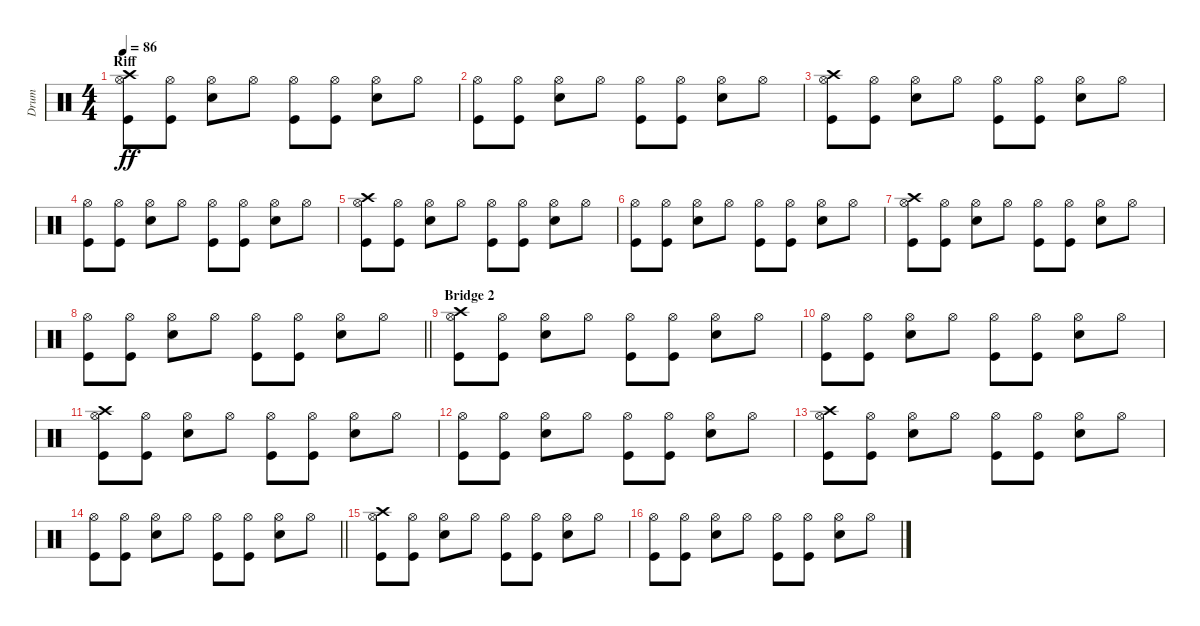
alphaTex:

\track ("Drum" "Drum") {instrument percussion}
\staff {score}
\articulation defaults
\ts (4 4)
\section ("" "Riff")
\tempo 86
\clef neutral
\ks c
("Crash high (hit)" "Kick (hit)" "Hi-Hat (open)").8{dy ff} ("Hi-Hat (open)" "Kick (hit)").8 ("Electric Snare (hit)" "Hi-Hat (open)").8 "Hi-Hat (open)".8 ("Hi-Hat (open)" "Kick (hit)").8 ("Hi-Hat (open)" "Kick (hit)").8 ("Hi-Hat (open)" "Electric Snare (hit)").8 "Hi-Hat (open)".8 |
("Kick (hit)" "Hi-Hat (open)").8 ("Kick (hit)" "Hi-Hat (open)").8 ("Hi-Hat (open)" "Electric Snare (hit)").8 "Hi-Hat (open)".8 ("Hi-Hat (open)" "Kick (hit)").8 ("Hi-Hat (open)" "Kick (hit)").8 ("Electric Snare (hit)" "Hi-Hat (open)").8 "Hi-Hat (open)".8 |
("Kick (hit)" "Hi-Hat (open)" "Crash high (hit)").8 ("Kick (hit)" "Hi-Hat (open)").8 ("Hi-Hat (open)" "Electric Snare (hit)").8 "Hi-Hat (open)".8 ("Hi-Hat (open)" "Kick (hit)").8 ("Hi-Hat (open)" "Kick (hit)").8 ("Hi-Hat (open)" "Electric Snare (hit)").8 "Hi-Hat (open)".8 |
("Hi-Hat (open)" "Kick (hit)").8 ("Hi-Hat (open)" "Kick (hit)").8 ("Hi-Hat (open)" "Electric Snare (hit)").8 "Hi-Hat (open)".8 ("Hi-Hat (open)" "Kick (hit)").8 ("Hi-Hat (open)" "Kick (hit)").8 ("Hi-Hat (open)" "Electric Snare (hit)").8 "Hi-Hat (open)".8 |
("Crash high (hit)" "Kick (hit)" "Hi-Hat (open)").8 ("Hi-Hat (open)" "Kick (hit)").8 ("Electric Snare (hit)" "Hi-Hat (open)").8 "Hi-Hat (open)".8 ("Hi-Hat (open)" "Kick (hit)").8 ("Hi-Hat (open)" "Kick (hit)").8 ("Hi-Hat (open)" "Electric Snare (hit)").8 "Hi-Hat (open)".8 |
("Kick (hit)" "Hi-Hat (open)").8 ("Kick (hit)" "Hi-Hat (open)").8 ("Hi-Hat (open)" "Electric Snare (hit)").8 "Hi-Hat (open)".8 ("Hi-Hat (open)" "Kick (hit)").8 ("Hi-Hat (open)" "Kick (hit)").8 ("Electric Snare (hit)" "Hi-Hat (open)").8 "Hi-Hat (open)".8 |
("Kick (hit)" "Hi-Hat (open)" "Crash high (hit)").8 ("Kick (hit)" "Hi-Hat (open)").8 ("Hi-Hat (open)" "Electric Snare (hit)").8 "Hi-Hat (open)".8 ("Hi-Hat (open)" "Kick (hit)").8 ("Hi-Hat (open)" "Kick (hit)").8 ("Hi-Hat (open)" "Electric Snare (hit)").8 "Hi-Hat (open)".8 |
\barLineRight lightlight
("Hi-Hat (open)" "Kick (hit)").8 ("Hi-Hat (open)" "Kick (hit)").8 ("Hi-Hat (open)" "Electric Snare (hit)").8 "Hi-Hat (open)".8 ("Hi-Hat (open)" "Kick (hit)").8 ("Hi-Hat (open)" "Kick (hit)").8 ("Hi-Hat (open)" "Electric Snare (hit)").8 "Hi-Hat (open)".8 |
\section ("" "Bridge 2")
("Crash high (hit)" "Kick (hit)" "Hi-Hat (open)").8 ("Hi-Hat (open)" "Kick (hit)").8 ("Electric Snare (hit)" "Hi-Hat (open)").8 "Hi-Hat (open)".8 ("Hi-Hat (open)" "Kick (hit)").8 ("Hi-Hat (open)" "Kick (hit)").8 ("Hi-Hat (open)" "Electric Snare (hit)").8 "Hi-Hat (open)".8 |
("Kick (hit)" "Hi-Hat (open)").8 ("Kick (hit)" "Hi-Hat (open)").8 ("Hi-Hat (open)" "Electric Snare (hit)").8 "Hi-Hat (open)".8 ("Hi-Hat (open)" "Kick (hit)").8 ("Hi-Hat (open)" "Kick (hit)").8 ("Electric Snare (hit)" "Hi-Hat (open)").8 "Hi-Hat (open)".8 |
("Kick (hit)" "Hi-Hat (open)" "Crash high (hit)").8 ("Kick (hit)" "Hi-Hat (open)").8 ("Hi-Hat (open)" "Electric Snare (hit)").8 "Hi-Hat (open)".8 ("Hi-Hat (open)" "Kick (hit)").8 ("Hi-Hat (open)" "Kick (hit)").8 ("Hi-Hat (open)" "Electric Snare (hit)").8 "Hi-Hat (open)".8 |
("Hi-Hat (open)" "Kick (hit)").8 ("Hi-Hat (open)" "Kick (hit)").8 ("Hi-Hat (open)" "Electric Snare (hit)").8 "Hi-Hat (open)".8 ("Hi-Hat (open)" "Kick (hit)").8 ("Hi-Hat (open)" "Kick (hit)").8 ("Hi-Hat (open)" "Electric Snare (hit)").8 "Hi-Hat (open)".8 |
("Crash high (hit)" "Kick (hit)" "Hi-Hat (open)").8 ("Hi-Hat (open)" "Kick (hit)").8 ("Electric Snare (hit)" "Hi-Hat (open)").8 "Hi-Hat (open)".8 ("Hi-Hat (open)" "Kick (hit)").8 ("Hi-Hat (open)" "Kick (hit)").8 ("Hi-Hat (open)" "Electric Snare (hit)").8 "Hi-Hat (open)".8 |
\barLineRight lightlight
("Kick (hit)" "Hi-Hat (open)").8 ("Kick (hit)" "Hi-Hat (open)").8 ("Hi-Hat (open)" "Electric Snare (hit)").8 "Hi-Hat (open)".8 ("Hi-Hat (open)" "Kick (hit)").8 ("Hi-Hat (open)" "Kick (hit)").8 ("Electric Snare (hit)" "Hi-Hat (open)").8 "Hi-Hat (open)".8 |
\section ("" "")
("Crash high (hit)" "Kick (hit)" "Hi-Hat (open)").8 ("Hi-Hat (open)" "Kick (hit)").8 ("Electric Snare (hit)" "Hi-Hat (open)").8 "Hi-Hat (open)".8 ("Hi-Hat (open)" "Kick (hit)").8 ("Hi-Hat (open)" "Kick (hit)").8 ("Hi-Hat (open)" "Electric Snare (hit)").8 "Hi-Hat (open)".8 |
("Kick (hit)" "Hi-Hat (open)").8 ("Kick (hit)" "Hi-Hat (open)").8 ("Hi-Hat (open)" "Electric Snare (hit)").8 "Hi-Hat (open)".8 ("Hi-Hat (open)" "Kick (hit)").8 ("Hi-Hat (open)" "Kick (hit)").8 ("Electric Snare (hit)" "Hi-Hat (open)").8 "Hi-Hat (open)".8
